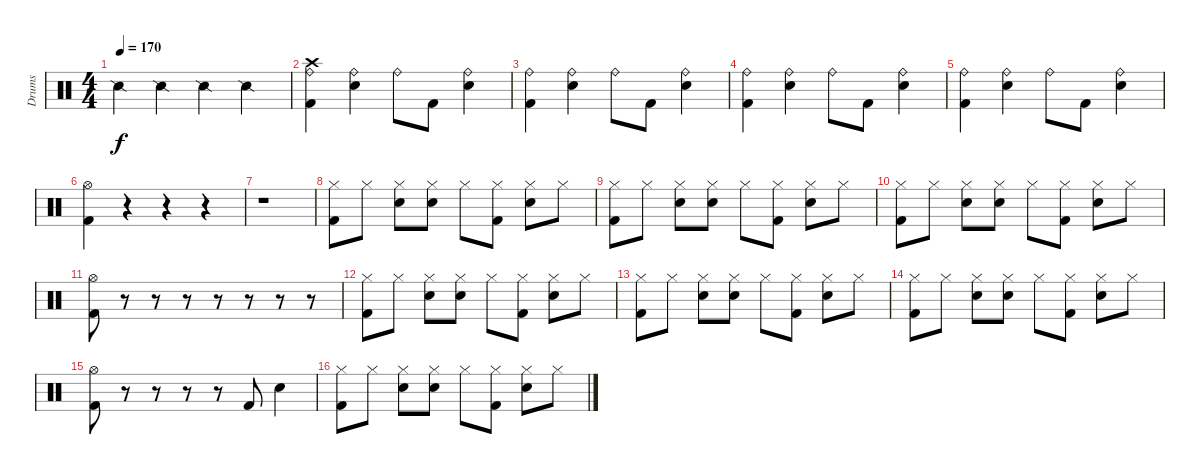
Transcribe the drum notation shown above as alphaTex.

\track ("Drums" "Drums") {instrument percussion}
\staff {score}
\articulation defaults
\ts (4 4)
\tempo 170
\clef neutral
\ks c "Snare (side stick) 2".4{dy f} "Snare (side stick) 2".4 "Snare (side stick) 2".4 "Snare (side stick) 2".4
|
("Crash high (hit)" "Ride (bell)" "Kick (hit) 2").4 ("Ride (bell)" "Electric Snare (hit)").4 "Ride (bell)".8 "Kick (hit) 2".8 ("Ride (bell)" "Electric Snare (hit)").4 |
("Ride (bell)" "Kick (hit) 2").4 ("Ride (bell)" "Electric Snare (hit)").4 "Ride (bell)".8 "Kick (hit) 2".8 ("Ride (bell)" "Electric Snare (hit)").4 |
("Ride (bell)" "Kick (hit) 2").4 ("Ride (bell)" "Electric Snare (hit)").4 "Ride (bell)".8 "Kick (hit) 2".8 ("Ride (bell)" "Electric Snare (hit)").4 |
("Ride (bell)" "Kick (hit) 2").4 ("Ride (bell)" "Electric Snare (hit)").4 "Ride (bell)".8 "Kick (hit) 2".8 ("Ride (bell)" "Electric Snare (hit)").4 |
("Hi-Hat (open)" "Kick (hit) 2").4 r.4 r.4 r.4 |
r.1 |
("Hi-Hat (closed)" "Kick (hit) 2").8 "Hi-Hat (closed)".8 ("Hi-Hat (closed)" "Electric Snare (hit)").8 ("Hi-Hat (closed)" "Electric Snare (hit)").8 "Hi-Hat (closed)".8 ("Hi-Hat (closed)" "Kick (hit) 2").8 ("Hi-Hat (closed)" "Electric Snare (hit)").8 "Hi-Hat (closed)".8 |
("Hi-Hat (closed)" "Kick (hit) 2").8 "Hi-Hat (closed)".8 ("Hi-Hat (closed)" "Electric Snare (hit)").8 ("Hi-Hat (closed)" "Electric Snare (hit)").8 "Hi-Hat (closed)".8 ("Hi-Hat (closed)" "Kick (hit) 2").8 ("Hi-Hat (closed)" "Electric Snare (hit)").8 "Hi-Hat (closed)".8 |
("Hi-Hat (closed)" "Kick (hit) 2").8 "Hi-Hat (closed)".8 ("Hi-Hat (closed)" "Electric Snare (hit)").8 ("Hi-Hat (closed)" "Electric Snare (hit)").8 "Hi-Hat (closed)".8 ("Hi-Hat (closed)" "Kick (hit) 2").8 ("Hi-Hat (closed)" "Electric Snare (hit)").8 "Hi-Hat (closed)".8 |
("Hi-Hat (open)" "Kick (hit) 2").8 r.8 r.8 r.8 r.8 r.8 r.8 r.8 |
("Hi-Hat (closed)" "Kick (hit) 2").8 "Hi-Hat (closed)".8 ("Hi-Hat (closed)" "Electric Snare (hit)").8 ("Hi-Hat (closed)" "Electric Snare (hit)").8 "Hi-Hat (closed)".8 ("Hi-Hat (closed)" "Kick (hit) 2").8 ("Hi-Hat (closed)" "Electric Snare (hit)").8 "Hi-Hat (closed)".8 |
("Hi-Hat (closed)" "Kick (hit) 2").8 "Hi-Hat (closed)".8 ("Hi-Hat (closed)" "Electric Snare (hit)").8 ("Hi-Hat (closed)" "Electric Snare (hit)").8 "Hi-Hat (closed)".8 ("Hi-Hat (closed)" "Kick (hit) 2").8 ("Hi-Hat (closed)" "Electric Snare (hit)").8 "Hi-Hat (closed)".8 |
("Hi-Hat (closed)" "Kick (hit) 2").8 "Hi-Hat (closed)".8 ("Hi-Hat (closed)" "Electric Snare (hit)").8 ("Hi-Hat (closed)" "Electric Snare (hit)").8 "Hi-Hat (closed)".8 ("Hi-Hat (closed)" "Kick (hit) 2").8 ("Hi-Hat (closed)" "Electric Snare (hit)").8 "Hi-Hat (closed)".8 |
("Hi-Hat (open)" "Kick (hit) 2").8 r.8 r.8 r.8 r.8 "Kick (hit) 2".8 "Electric Snare (hit)".4 |
("Hi-Hat (closed)" "Kick (hit) 2").8 "Hi-Hat (closed)".8 ("Hi-Hat (closed)" "Electric Snare (hit)").8 ("Hi-Hat (closed)" "Electric Snare (hit)").8 "Hi-Hat (closed)".8 ("Hi-Hat (closed)" "Kick (hit) 2").8 ("Hi-Hat (closed)" "Electric Snare (hit)").8 "Hi-Hat (closed)".8
